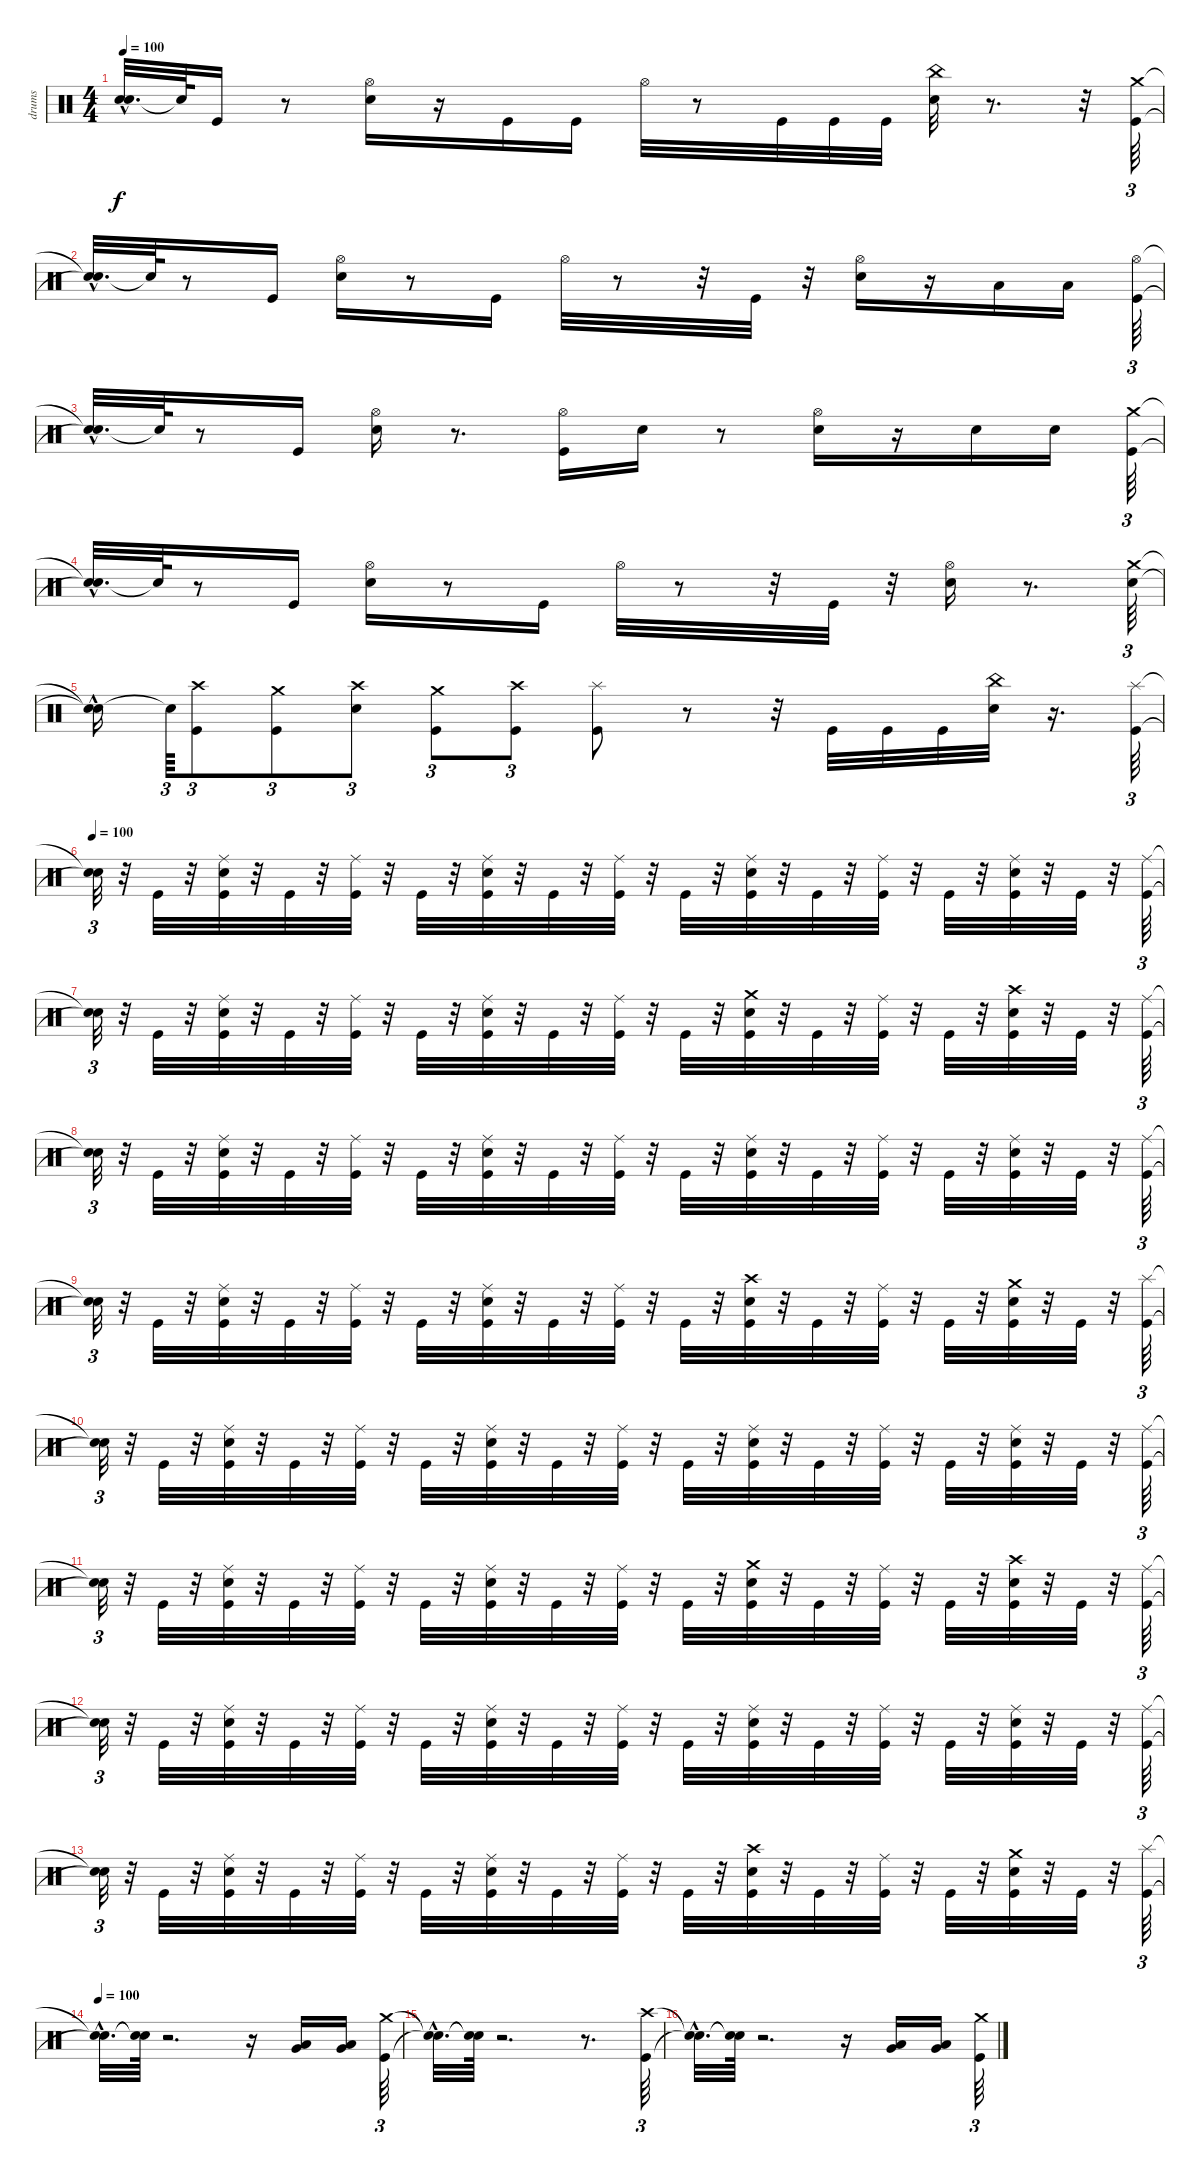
\track ("drums" "drums") {instrument percussion}
\staff {score}
\articulation defaults
\ts (4 4)
\tempo 100
\clef neutral
\ks c
("Snare (hit)"{t} "Snare (hit)"{hac t}).32{d dy f} "Snare (hit)"{t}.64 "Kick (hit)".16 r.8 ("Hi-Hat (open)" "Electric Snare (hit)").16 r.16 "Kick (hit)".16 "Kick (hit)".16 "Hi-Hat (open)".32 r.8 "Kick (hit)".32 "Kick (hit)".32 "Kick (hit)".32 ("Electric Snare (hit)" "China (hit)").32 r.8{d} r.32 ("Kick (hit)" "Crash medium (hit)").64{tu (3 2)} |
("Snare (hit)"{hac t} "Snare (hit)"{t}).32{d} "Snare (hit)"{t}.64 r.8 "Kick (hit)".16 ("Hi-Hat (open)" "Electric Snare (hit)").16 r.8 "Kick (hit)".16 "Hi-Hat (open)".32 r.8 r.32 "Kick (hit)".32 r.32 ("Hi-Hat (open)" "Electric Snare (hit)").16 r.16 "Low Tom (hit)".16 "Low Tom (hit)".16 ("Hi-Hat (open)" "Kick (hit)").64{tu (3 2)} |
("Snare (hit)"{t} "Snare (hit)"{hac t}).32{d} "Snare (hit)"{t}.64 r.8 "Kick (hit)".16 ("Hi-Hat (open)" "Electric Snare (hit)").16 r.8{d} ("Hi-Hat (open)" "Kick (hit)").16 "Electric Snare (hit)".16 r.8 ("Hi-Hat (open)" "Electric Snare (hit)").16 r.16 "Electric Snare (hit)".16 "Electric Snare (hit)".16 ("Kick (hit)" "Crash medium (hit)").64{tu (3 2)} |
("Snare (hit)"{hac t} "Snare (hit)"{t}).32{d} "Snare (hit)"{t}.64 r.8 "Kick (hit)".16 ("Hi-Hat (open)" "Electric Snare (hit)").16 r.8 "Kick (hit)".16 "Hi-Hat (open)".32 r.8 r.32 "Kick (hit)".32 r.32 ("Electric Snare (hit)" "Hi-Hat (open)").16 r.8{d} ("Electric Snare (hit)" "Crash medium (hit)").64{tu (3 2)} |
("Snare (hit)"{hac t} "Snare (hit)"{t}).16 "Snare (hit)"{t}.64{tu (3 2)} ("Crash high (hit)" "Kick (hit)").8{tu (3 2)} ("Kick (hit)" "Crash medium (hit)").8{tu (3 2)} ("Crash high (hit)" "Electric Snare (hit)").8{tu (3 2)} ("Kick (hit)" "Crash medium (hit)").8{tu (3 2)} ("Kick (hit)" "Crash high (hit)").8{tu (3 2)} ("Splash (hit)" "Kick (hit)").8 r.8 r.32 "Kick (hit)".32 "Kick (hit)".32 "Kick (hit)".32 ("China (hit)" "Electric Snare (hit)").32 r.16{d} ("Splash (hit)" "Kick (hit)").64{tu (3 2)} |
\tempo 100
("Snare (hit)"{t} "Snare (hit)"{t}).32{tu (3 2)} r.32 "Kick (hit)".32 r.32 ("Electric Snare (hit)" "Kick (hit)" "Ride (middle)").32 r.32 "Kick (hit)".32 r.32 ("Ride (middle)" "Kick (hit)").32 r.32 "Kick (hit)".32 r.32 ("Kick (hit)" "Ride (middle)" "Electric Snare (hit)").32 r.32 "Kick (hit)".32 r.32 ("Kick (hit)" "Ride (middle)").32 r.32 "Kick (hit)".32 r.32 ("Electric Snare (hit)" "Ride (middle)" "Kick (hit)").32 r.32 "Kick (hit)".32 r.32 ("Ride (middle)" "Kick (hit)").32 r.32 "Kick (hit)".32 r.32 ("Ride (middle)" "Kick (hit)" "Electric Snare (hit)").32 r.32 "Kick (hit)".32 r.32 ("Kick (hit)" "Ride (middle)").64{tu (3 2)} |
("Snare (hit)"{t} "Snare (hit)"{t}).32{tu (3 2)} r.32 "Kick (hit)".32 r.32 ("Kick (hit)" "Ride (middle)" "Electric Snare (hit)").32 r.32 "Kick (hit)".32 r.32 ("Ride (middle)" "Kick (hit)").32 r.32 "Kick (hit)".32 r.32 ("Electric Snare (hit)" "Ride (middle)" "Kick (hit)").32 r.32 "Kick (hit)".32 r.32 ("Ride (middle)" "Kick (hit)").32 r.32 "Kick (hit)".32 r.32 ("Crash medium (hit)" "Kick (hit)" "Electric Snare (hit)").32 r.32 "Kick (hit)".32 r.32 ("Ride (middle)" "Kick (hit)").32 r.32 "Kick (hit)".32 r.32 ("Kick (hit)" "Crash high (hit)" "Electric Snare (hit)").32 r.32 "Kick (hit)".32 r.32 ("Ride (middle)" "Kick (hit)").64{tu (3 2)} |
("Snare (hit)"{t} "Snare (hit)"{t}).32{tu (3 2)} r.32 "Kick (hit)".32 r.32 ("Ride (middle)" "Kick (hit)" "Electric Snare (hit)").32 r.32 "Kick (hit)".32 r.32 ("Kick (hit)" "Ride (middle)").32 r.32 "Kick (hit)".32 r.32 ("Electric Snare (hit)" "Ride (middle)" "Kick (hit)").32 r.32 "Kick (hit)".32 r.32 ("Kick (hit)" "Ride (middle)").32 r.32 "Kick (hit)".32 r.32 ("Ride (middle)" "Kick (hit)" "Electric Snare (hit)").32 r.32 "Kick (hit)".32 r.32 ("Kick (hit)" "Ride (middle)").32 r.32 "Kick (hit)".32 r.32 ("Ride (middle)" "Electric Snare (hit)" "Kick (hit)").32 r.32 "Kick (hit)".32 r.32 ("Kick (hit)" "Ride (middle)").64{tu (3 2)} |
("Snare (hit)"{t} "Snare (hit)"{t}).32{tu (3 2)} r.32 "Kick (hit)".32 r.32 ("Electric Snare (hit)" "Ride (middle)" "Kick (hit)").32 r.32 "Kick (hit)".32 r.32 ("Kick (hit)" "Ride (middle)").32 r.32 "Kick (hit)".32 r.32 ("Kick (hit)" "Ride (middle)" "Electric Snare (hit)").32 r.32 "Kick (hit)".32 r.32 ("Kick (hit)" "Ride (middle)").32 r.32 "Kick (hit)".32 r.32 ("Crash high (hit)" "Kick (hit)" "Electric Snare (hit)").32 r.32 "Kick (hit)".32 r.32 ("Kick (hit)" "Ride (middle)").32 r.32 "Kick (hit)".32 r.32 ("Crash medium (hit)" "Electric Snare (hit)" "Kick (hit)").32 r.32 "Kick (hit)".32 r.32 ("Splash (hit)" "Kick (hit)").64{tu (3 2)} |
("Snare (hit)"{t} "Snare (hit)"{t}).32{tu (3 2)} r.32 "Kick (hit)".32 r.32 ("Electric Snare (hit)" "Kick (hit)" "Ride (middle)").32 r.32 "Kick (hit)".32 r.32 ("Ride (middle)" "Kick (hit)").32 r.32 "Kick (hit)".32 r.32 ("Kick (hit)" "Ride (middle)" "Electric Snare (hit)").32 r.32 "Kick (hit)".32 r.32 ("Kick (hit)" "Ride (middle)").32 r.32 "Kick (hit)".32 r.32 ("Electric Snare (hit)" "Ride (middle)" "Kick (hit)").32 r.32 "Kick (hit)".32 r.32 ("Ride (middle)" "Kick (hit)").32 r.32 "Kick (hit)".32 r.32 ("Ride (middle)" "Kick (hit)" "Electric Snare (hit)").32 r.32 "Kick (hit)".32 r.32 ("Kick (hit)" "Ride (middle)").64{tu (3 2)} |
("Snare (hit)"{t} "Snare (hit)"{t}).32{tu (3 2)} r.32 "Kick (hit)".32 r.32 ("Kick (hit)" "Ride (middle)" "Electric Snare (hit)").32 r.32 "Kick (hit)".32 r.32 ("Ride (middle)" "Kick (hit)").32 r.32 "Kick (hit)".32 r.32 ("Electric Snare (hit)" "Ride (middle)" "Kick (hit)").32 r.32 "Kick (hit)".32 r.32 ("Ride (middle)" "Kick (hit)").32 r.32 "Kick (hit)".32 r.32 ("Crash medium (hit)" "Kick (hit)" "Electric Snare (hit)").32 r.32 "Kick (hit)".32 r.32 ("Ride (middle)" "Kick (hit)").32 r.32 "Kick (hit)".32 r.32 ("Kick (hit)" "Crash high (hit)" "Electric Snare (hit)").32 r.32 "Kick (hit)".32 r.32 ("Ride (middle)" "Kick (hit)").64{tu (3 2)} |
("Snare (hit)"{t} "Snare (hit)"{t}).32{tu (3 2)} r.32 "Kick (hit)".32 r.32 ("Ride (middle)" "Kick (hit)" "Electric Snare (hit)").32 r.32 "Kick (hit)".32 r.32 ("Kick (hit)" "Ride (middle)").32 r.32 "Kick (hit)".32 r.32 ("Electric Snare (hit)" "Ride (middle)" "Kick (hit)").32 r.32 "Kick (hit)".32 r.32 ("Kick (hit)" "Ride (middle)").32 r.32 "Kick (hit)".32 r.32 ("Ride (middle)" "Kick (hit)" "Electric Snare (hit)").32 r.32 "Kick (hit)".32 r.32 ("Kick (hit)" "Ride (middle)").32 r.32 "Kick (hit)".32 r.32 ("Ride (middle)" "Electric Snare (hit)" "Kick (hit)").32 r.32 "Kick (hit)".32 r.32 ("Kick (hit)" "Ride (middle)").64{tu (3 2)} |
("Snare (hit)"{t} "Snare (hit)"{t}).32{tu (3 2)} r.32 "Kick (hit)".32 r.32 ("Electric Snare (hit)" "Ride (middle)" "Kick (hit)").32 r.32 "Kick (hit)".32 r.32 ("Kick (hit)" "Ride (middle)").32 r.32 "Kick (hit)".32 r.32 ("Kick (hit)" "Ride (middle)" "Electric Snare (hit)").32 r.32 "Kick (hit)".32 r.32 ("Kick (hit)" "Ride (middle)").32 r.32 "Kick (hit)".32 r.32 ("Crash high (hit)" "Kick (hit)" "Electric Snare (hit)").32 r.32 "Kick (hit)".32 r.32 ("Kick (hit)" "Ride (middle)").32 r.32 "Kick (hit)".32 r.32 ("Crash medium (hit)" "Electric Snare (hit)" "Kick (hit)").32 r.32 "Kick (hit)".32 r.32 ("Kick (hit)" "Splash (hit)").64{tu (3 2)} |
\tempo 100
("Snare (hit)"{hac t} "Snare (hit)"{hac t}).32{d} ("Snare (hit)"{t} "Snare (hit)"{t}).64 r.2{d} r.16 ("Very Low Tom (hit)" "Low Floor Tom (hit)").16 ("Very Low Tom (hit)" "Low Floor Tom (hit)").16 ("Crash medium (hit)" "Kick (hit)").64{tu (3 2)} |
("Snare (hit)"{hac t} "Snare (hit)"{hac t}).32{d} ("Snare (hit)"{t} "Snare (hit)"{t}).64 r.2{d} r.8{d} ("Kick (hit)" "Crash high (hit)").64{tu (3 2)} |
("Snare (hit)"{hac t} "Snare (hit)"{hac t}).32{d} ("Snare (hit)"{t} "Snare (hit)"{t}).64 r.2{d} r.16 ("Very Low Tom (hit)" "Low Floor Tom (hit)").16 ("Very Low Tom (hit)" "Low Floor Tom (hit)").16 ("Kick (hit)" "Crash medium (hit)").64{tu (3 2)}
